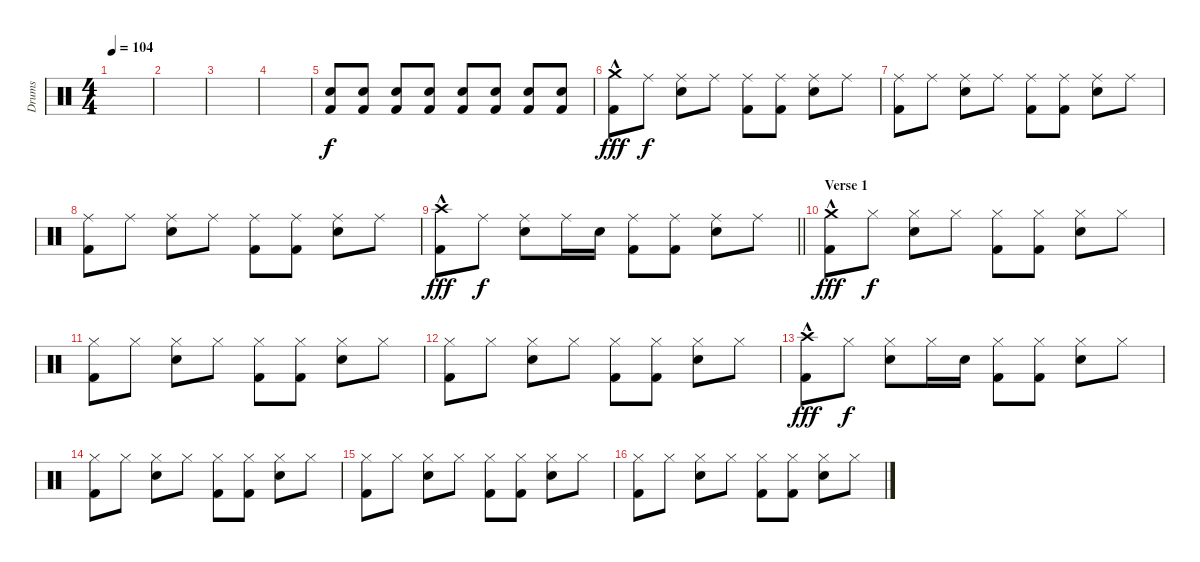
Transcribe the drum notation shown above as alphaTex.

\track ("Drums" "Drums") {instrument percussion}
\staff {score}
\articulation defaults
\ts (4 4)
\tempo 104
\clef neutral
\ks c
|
|
|
|
("Snare (hit) 2" "Kick (hit) 2").8 ("Snare (hit) 2" "Kick (hit) 2").8 ("Snare (hit) 2" "Kick (hit) 2").8 ("Snare (hit) 2" "Kick (hit) 2").8 ("Snare (hit) 2" "Kick (hit) 2").8 ("Snare (hit) 2" "Kick (hit) 2").8 ("Snare (hit) 2" "Kick (hit) 2").8 ("Snare (hit) 2" "Kick (hit) 2").8 |
("Crash medium (hit)"{hac} "Kick (hit) 2").8{dy fff} "Ride (middle)".8{dy f} ("Ride (middle)" "Snare (hit) 2").8 "Ride (middle)".8 ("Ride (middle)" "Kick (hit) 2").8 ("Ride (middle)" "Kick (hit) 2").8 ("Ride (middle)" "Snare (hit) 2").8 "Ride (middle)".8 |
("Ride (middle)" "Kick (hit) 2").8 "Ride (middle)".8 ("Ride (middle)" "Snare (hit) 2").8 "Ride (middle)".8 ("Ride (middle)" "Kick (hit) 2").8 ("Ride (middle)" "Kick (hit) 2").8 ("Ride (middle)" "Snare (hit) 2").8 "Ride (middle)".8 |
("Ride (middle)" "Kick (hit) 2").8 "Ride (middle)".8 ("Ride (middle)" "Snare (hit) 2").8 "Ride (middle)".8 ("Ride (middle)" "Kick (hit) 2").8 ("Ride (middle)" "Kick (hit) 2").8 ("Ride (middle)" "Snare (hit) 2").8 "Ride (middle)".8 |
\barLineRight lightlight
("Crash high (hit)"{hac} "Kick (hit) 2").8{dy fff} "Ride (middle)".8{dy f} ("Ride (middle)" "Snare (hit) 2").8 "Ride (middle)".16 "Snare (hit) 2".16 ("Ride (middle)" "Kick (hit) 2").8 ("Ride (middle)" "Kick (hit) 2").8 ("Ride (middle)" "Snare (hit) 2").8 "Ride (middle)".8 |
\section ("" "Verse 1")
("Crash medium (hit)"{hac} "Kick (hit) 2").8{dy fff} "Hi-Hat (closed)".8{dy f} ("Hi-Hat (closed)" "Snare (hit) 2").8 "Hi-Hat (closed)".8 ("Hi-Hat (closed)" "Kick (hit) 2").8 ("Hi-Hat (closed)" "Kick (hit) 2").8 ("Hi-Hat (closed)" "Snare (hit) 2").8 "Hi-Hat (closed)".8 |
("Hi-Hat (closed)" "Kick (hit) 2").8 "Hi-Hat (closed)".8 ("Hi-Hat (closed)" "Snare (hit) 2").8 "Hi-Hat (closed)".8 ("Hi-Hat (closed)" "Kick (hit) 2").8 ("Hi-Hat (closed)" "Kick (hit) 2").8 ("Hi-Hat (closed)" "Snare (hit) 2").8 "Hi-Hat (closed)".8 |
("Hi-Hat (closed)" "Kick (hit) 2").8 "Hi-Hat (closed)".8 ("Hi-Hat (closed)" "Snare (hit) 2").8 "Hi-Hat (closed)".8 ("Hi-Hat (closed)" "Kick (hit) 2").8 ("Hi-Hat (closed)" "Kick (hit) 2").8 ("Hi-Hat (closed)" "Snare (hit) 2").8 "Hi-Hat (closed)".8 |
("Crash high (hit)"{hac} "Kick (hit) 2").8{dy fff} "Hi-Hat (closed)".8{dy f} ("Hi-Hat (closed)" "Snare (hit) 2").8 "Hi-Hat (closed)".16 "Snare (hit) 2".16 ("Hi-Hat (closed)" "Kick (hit) 2").8 ("Hi-Hat (closed)" "Kick (hit) 2").8 ("Hi-Hat (closed)" "Snare (hit) 2").8 "Hi-Hat (closed)".8 |
("Hi-Hat (closed)" "Kick (hit) 2").8 "Hi-Hat (closed)".8 ("Hi-Hat (closed)" "Snare (hit) 2").8 "Hi-Hat (closed)".8 ("Hi-Hat (closed)" "Kick (hit) 2").8 ("Hi-Hat (closed)" "Kick (hit) 2").8 ("Hi-Hat (closed)" "Snare (hit) 2").8 "Hi-Hat (closed)".8 |
("Hi-Hat (closed)" "Kick (hit) 2").8 "Hi-Hat (closed)".8 ("Hi-Hat (closed)" "Snare (hit) 2").8 "Hi-Hat (closed)".8 ("Hi-Hat (closed)" "Kick (hit) 2").8 ("Hi-Hat (closed)" "Kick (hit) 2").8 ("Hi-Hat (closed)" "Snare (hit) 2").8 "Hi-Hat (closed)".8 |
("Hi-Hat (closed)" "Kick (hit) 2").8 "Hi-Hat (closed)".8 ("Hi-Hat (closed)" "Snare (hit) 2").8 "Hi-Hat (closed)".8 ("Hi-Hat (closed)" "Kick (hit) 2").8 ("Hi-Hat (closed)" "Kick (hit) 2").8 ("Hi-Hat (closed)" "Snare (hit) 2").8 "Hi-Hat (closed)".8
